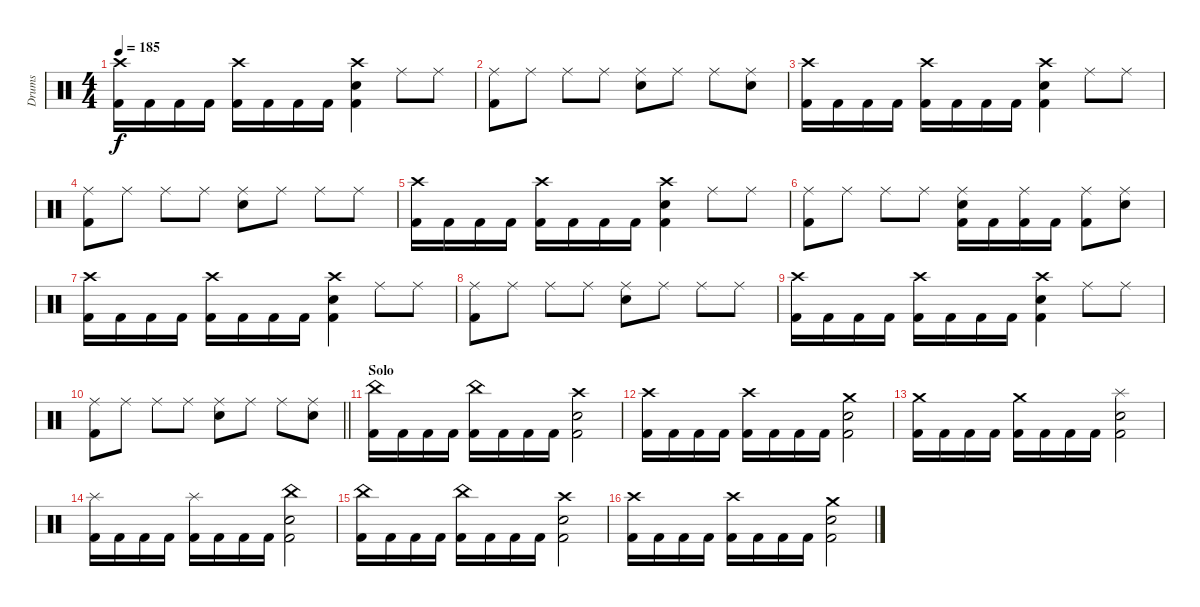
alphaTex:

\track ("Drums" "Drums") {instrument percussion}
\staff {score}
\articulation defaults
\ts (4 4)
\tempo 185
\clef neutral
\ks c
("Crash high (hit)" "Kick (hit) 2").16{dy f} "Kick (hit) 2".16 "Kick (hit) 2".16 "Kick (hit) 2".16 ("Crash high (hit)" "Kick (hit) 2").16 "Kick (hit) 2".16 "Kick (hit) 2".16 "Kick (hit) 2".16 ("Crash high (hit)" "Electric Snare (hit)" "Kick (hit) 2").4 "Ride (middle)".8 "Ride (middle)".8 |
("Ride (middle)" "Kick (hit) 2").8 "Ride (middle)".8 "Ride (middle)".8 "Ride (middle)".8 ("Ride (middle)" "Electric Snare (hit)").8 "Ride (middle)".8 "Ride (middle)".8 ("Ride (middle)" "Electric Snare (hit)").8 |
("Crash high (hit)" "Kick (hit) 2").16 "Kick (hit) 2".16 "Kick (hit) 2".16 "Kick (hit) 2".16 ("Crash high (hit)" "Kick (hit) 2").16 "Kick (hit) 2".16 "Kick (hit) 2".16 "Kick (hit) 2".16 ("Crash high (hit)" "Electric Snare (hit)" "Kick (hit) 2").4 "Ride (middle)".8 "Ride (middle)".8 |
("Ride (middle)" "Kick (hit) 2").8 "Ride (middle)".8 "Ride (middle)".8 "Ride (middle)".8 ("Ride (middle)" "Electric Snare (hit)").8 "Ride (middle)".8 "Ride (middle)".8 "Ride (middle)".8 |
("Crash high (hit)" "Kick (hit) 2").16 "Kick (hit) 2".16 "Kick (hit) 2".16 "Kick (hit) 2".16 ("Crash high (hit)" "Kick (hit) 2").16 "Kick (hit) 2".16 "Kick (hit) 2".16 "Kick (hit) 2".16 ("Crash high (hit)" "Electric Snare (hit)" "Kick (hit) 2").4 "Ride (middle)".8 "Ride (middle)".8 |
("Ride (middle)" "Kick (hit) 2").8 "Ride (middle)".8 "Ride (middle)".8 "Ride (middle)".8 ("Ride (middle)" "Electric Snare (hit)" "Kick (hit) 2").16 "Kick (hit) 2".16 ("Ride (middle)" "Kick (hit) 2").16 "Kick (hit) 2".16 ("Ride (middle)" "Kick (hit) 2").8 ("Ride (middle)" "Electric Snare (hit)").8 |
("Crash high (hit)" "Kick (hit) 2").16 "Kick (hit) 2".16 "Kick (hit) 2".16 "Kick (hit) 2".16 ("Crash high (hit)" "Kick (hit) 2").16 "Kick (hit) 2".16 "Kick (hit) 2".16 "Kick (hit) 2".16 ("Crash high (hit)" "Electric Snare (hit)" "Kick (hit) 2").4 "Ride (middle)".8 "Ride (middle)".8 |
("Ride (middle)" "Kick (hit) 2").8 "Ride (middle)".8 "Ride (middle)".8 "Ride (middle)".8 ("Ride (middle)" "Electric Snare (hit)").8 "Ride (middle)".8 "Ride (middle)".8 "Ride (middle)".8 |
("Crash high (hit)" "Kick (hit) 2").16 "Kick (hit) 2".16 "Kick (hit) 2".16 "Kick (hit) 2".16 ("Crash high (hit)" "Kick (hit) 2").16 "Kick (hit) 2".16 "Kick (hit) 2".16 "Kick (hit) 2".16 ("Crash high (hit)" "Electric Snare (hit)" "Kick (hit) 2").4 "Ride (middle)".8 "Ride (middle)".8 |
\barLineRight lightlight
("Ride (middle)" "Kick (hit) 2").8 "Ride (middle)".8 "Ride (middle)".8 "Ride (middle)".8 ("Ride (middle)" "Electric Snare (hit)").8 "Ride (middle)".8 "Ride (middle)".8 ("Ride (middle)" "Electric Snare (hit)").8 |
\section ("" "Solo")
("China (hit)" "Kick (hit) 2").16 "Kick (hit) 2".16 "Kick (hit) 2".16 "Kick (hit) 2".16 ("China (hit)" "Kick (hit) 2").16 "Kick (hit) 2".16 "Kick (hit) 2".16 "Kick (hit) 2".16 ("Crash high (hit)" "Electric Snare (hit)" "Kick (hit) 2").2 |
("Crash high (hit)" "Kick (hit) 2").16 "Kick (hit) 2".16 "Kick (hit) 2".16 "Kick (hit) 2".16 ("Crash high (hit)" "Kick (hit) 2").16 "Kick (hit) 2".16 "Kick (hit) 2".16 "Kick (hit) 2".16 ("Crash medium (hit)" "Electric Snare (hit)" "Kick (hit) 2").2 |
("Crash medium (hit)" "Kick (hit) 2").16 "Kick (hit) 2".16 "Kick (hit) 2".16 "Kick (hit) 2".16 ("Crash medium (hit)" "Kick (hit) 2").16 "Kick (hit) 2".16 "Kick (hit) 2".16 "Kick (hit) 2".16 ("Splash (hit)" "Electric Snare (hit)" "Kick (hit) 2").2 |
("Splash (hit)" "Kick (hit) 2").16 "Kick (hit) 2".16 "Kick (hit) 2".16 "Kick (hit) 2".16 ("Splash (hit)" "Kick (hit) 2").16 "Kick (hit) 2".16 "Kick (hit) 2".16 "Kick (hit) 2".16 ("China (hit)" "Electric Snare (hit)" "Kick (hit) 2").2 |
("China (hit)" "Kick (hit) 2").16 "Kick (hit) 2".16 "Kick (hit) 2".16 "Kick (hit) 2".16 ("China (hit)" "Kick (hit) 2").16 "Kick (hit) 2".16 "Kick (hit) 2".16 "Kick (hit) 2".16 ("Crash high (hit)" "Electric Snare (hit)" "Kick (hit) 2").2 |
("Crash high (hit)" "Kick (hit) 2").16 "Kick (hit) 2".16 "Kick (hit) 2".16 "Kick (hit) 2".16 ("Crash high (hit)" "Kick (hit) 2").16 "Kick (hit) 2".16 "Kick (hit) 2".16 "Kick (hit) 2".16 ("Crash medium (hit)" "Electric Snare (hit)" "Kick (hit) 2").2
